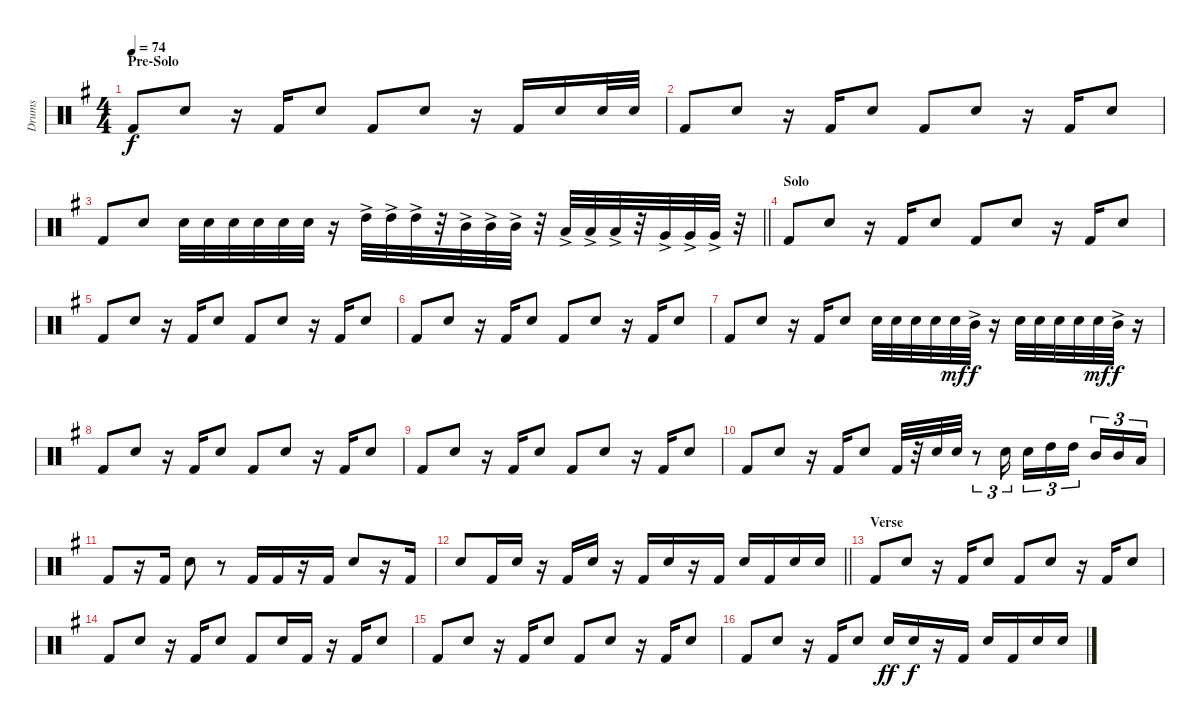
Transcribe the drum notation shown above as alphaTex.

\track ("Drums" "Drums") {instrument percussion}
\staff {score}
\articulation defaults
\ts (4 4)
\section ("" "Pre-Solo")
\tempo 74
\clef neutral
\ks g "Kick (hit) 2".8{dy f} "Snare (hit) 2".8
r.16 "Kick (hit) 2".16 "Snare (hit) 2".8 "Kick (hit) 2".8 "Snare (hit) 2".8 r.16 "Kick (hit) 2".16 "Snare (hit) 2".16 "Snare (hit) 2".32 "Snare (hit) 2".32 |
"Kick (hit) 2".8 "Snare (hit) 2".8 r.16 "Kick (hit) 2".16 "Snare (hit) 2".8 "Kick (hit) 2".8 "Snare (hit) 2".8 r.16 "Kick (hit) 2".16 "Snare (hit) 2".8 |
\barLineRight lightlight "Kick (hit) 2".8 "Snare (hit) 2".8 "Snare (hit) 2".32 "Snare (hit) 2".32 "Snare (hit) 2".32 "Snare (hit) 2".32 "Snare (hit) 2".32 "Snare (hit) 2".32
r.16 "High Tom (hit)"{ac}.32 "High Tom (hit)"{ac}.32 "High Tom (hit)"{ac}.32 r.32 "Mid Tom (hit)"{ac}.32 "Mid Tom (hit)"{ac}.32 "Mid Tom (hit)"{ac}.32 r.32 "Low Tom (hit)"{ac}.32 "Low Tom (hit)"{ac}.32 "Low Tom (hit)"{ac}.32 r.32 "Very Low Tom (hit)"{ac}.32 "Very Low Tom (hit)"{ac}.32 "Very Low Tom (hit)"{ac}.32 r.32 |
\section ("" "Solo")
"Kick (hit) 2".8 "Snare (hit) 2".8 r.16 "Kick (hit) 2".16 "Snare (hit) 2".8 "Kick (hit) 2".8 "Snare (hit) 2".8 r.16 "Kick (hit) 2".16 "Snare (hit) 2".8 |
"Kick (hit) 2".8 "Snare (hit) 2".8 r.16 "Kick (hit) 2".16 "Snare (hit) 2".8 "Kick (hit) 2".8 "Snare (hit) 2".8 r.16 "Kick (hit) 2".16 "Snare (hit) 2".8 |
"Kick (hit) 2".8 "Snare (hit) 2".8 r.16 "Kick (hit) 2".16 "Snare (hit) 2".8 "Kick (hit) 2".8 "Snare (hit) 2".8 r.16 "Kick (hit) 2".16 "Snare (hit) 2".8 |
"Kick (hit) 2".8 "Snare (hit) 2".8 r.16 "Kick (hit) 2".16 "Snare (hit) 2".8 "Snare (hit) 2".32 "Snare (hit) 2".32 "Snare (hit) 2".32 "Snare (hit) 2".32 "Snare (hit) 2".32{dy mf} "Mid Tom (hit)"{ac}.32{dy f} r.16 "Snare (hit) 2".32 "Snare (hit) 2".32 "Snare (hit) 2".32 "Snare (hit) 2".32 "Snare (hit) 2".32{dy mf} "Mid Tom (hit)"{ac}.32{dy f} r.16 |
"Kick (hit) 2".8 "Snare (hit) 2".8 r.16 "Kick (hit) 2".16 "Snare (hit) 2".8 "Kick (hit) 2".8 "Snare (hit) 2".8 r.16 "Kick (hit) 2".16 "Snare (hit) 2".8 |
"Kick (hit) 2".8 "Snare (hit) 2".8 r.16 "Kick (hit) 2".16 "Snare (hit) 2".8 "Kick (hit) 2".8 "Snare (hit) 2".8 r.16 "Kick (hit) 2".16 "Snare (hit) 2".8 |
"Kick (hit) 2".8 "Snare (hit) 2".8 r.16 "Kick (hit) 2".16 "Snare (hit) 2".8 "Kick (hit) 2".32 r.32 "Snare (hit) 2".32 "Snare (hit) 2".32 r.8{tu (3 2)} "Snare (hit) 2".16{tu (3 2)} "Snare (hit) 2".16{tu (3 2)} "High Tom (hit)".16{tu (3 2)} "High Tom (hit)".16{tu (3 2)} "Mid Tom (hit)".16{tu (3 2)} "Mid Tom (hit)".16{tu (3 2)} "Low Tom (hit)".16{tu (3 2)} |
"Kick (hit) 2".8 r.16 "Kick (hit) 2".16 "Snare (hit) 2".8 r.8 "Kick (hit) 2".16 "Kick (hit) 2".16 r.16 "Kick (hit) 2".16 "Snare (hit) 2".8 r.16 "Kick (hit) 2".16 |
\barLineRight lightlight "Snare (hit) 2".8 "Kick (hit) 2".16 "Snare (hit) 2".16
r.16 "Kick (hit) 2".16 "Snare (hit) 2".16 r.16 "Kick (hit) 2".16 "Snare (hit) 2".16 r.16 "Kick (hit) 2".16 "Snare (hit) 2".16 "Kick (hit) 2".16 "Snare (hit) 2".16 "Snare (hit) 2".16 |
\section ("" "Verse")
"Kick (hit) 2".8 "Snare (hit) 2".8 r.16 "Kick (hit) 2".16 "Snare (hit) 2".8 "Kick (hit) 2".8 "Snare (hit) 2".8 r.16 "Kick (hit) 2".16 "Snare (hit) 2".8 |
"Kick (hit) 2".8 "Snare (hit) 2".8 r.16 "Kick (hit) 2".16 "Snare (hit) 2".8 "Kick (hit) 2".8 "Snare (hit) 2".16 "Kick (hit) 2".16 r.16 "Kick (hit) 2".16 "Snare (hit) 2".8 |
"Kick (hit) 2".8 "Snare (hit) 2".8 r.16 "Kick (hit) 2".16 "Snare (hit) 2".8 "Kick (hit) 2".8 "Snare (hit) 2".8 r.16 "Kick (hit) 2".16 "Snare (hit) 2".8 |
"Kick (hit) 2".8 "Snare (hit) 2".8 r.16 "Kick (hit) 2".16 "Snare (hit) 2".8 "Snare (hit) 2".16{dy ff} "Snare (hit) 2".16{dy f} r.16 "Kick (hit) 2".16 "Snare (hit) 2".16 "Kick (hit) 2".16 "Snare (hit) 2".16 "Snare (hit) 2".16
